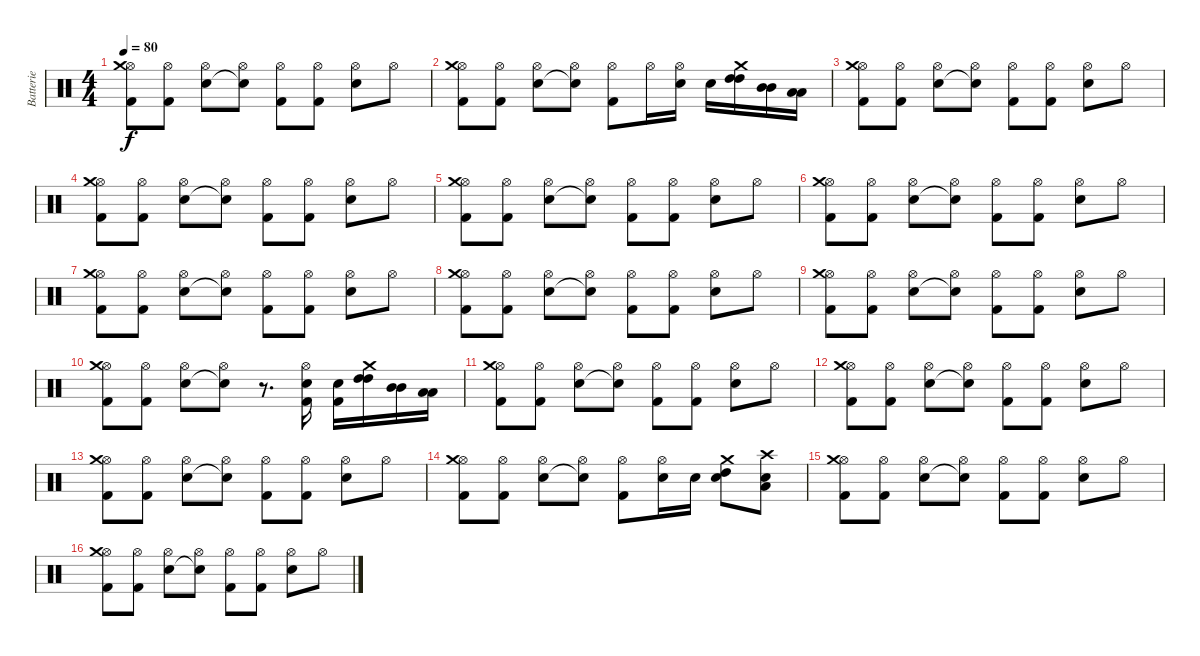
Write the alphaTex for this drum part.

\track ("Batterie" "Batterie") {instrument percussion}
\staff {score}
\articulation defaults
\ts (4 4)
\tempo 80
\clef neutral
\ks c
("Hi-Hat (open)" "Crash medium (hit)" "Kick (hit) 2").8{dy f} ("Hi-Hat (open)" "Kick (hit) 2").8 ("Hi-Hat (open)" "Snare (hit) 2").8 ("Hi-Hat (open)" "Snare (hit)"{t}).8 ("Hi-Hat (open)" "Kick (hit) 2").8 ("Hi-Hat (open)" "Kick (hit) 2").8 ("Hi-Hat (open)" "Snare (hit) 2").8 "Hi-Hat (open)".8 |
("Hi-Hat (open)" "Crash medium (hit)" "Kick (hit) 2").8 ("Hi-Hat (open)" "Kick (hit) 2").8 ("Hi-Hat (open)" "Snare (hit) 2").8 ("Hi-Hat (open)" "Snare (hit)"{t}).8 ("Hi-Hat (open)" "Kick (hit) 2").8 "Hi-Hat (open)".16 ("Hi-Hat (open)" "Snare (hit) 2").16 "Snare (hit) 2".16 ("Crash medium (hit)" "High Tom (hit)" "High Tom (hit)").16 ("Mid Tom (hit)" "Mid Tom (hit)").16 ("Low Tom (hit)" "Low Tom (hit)").16 |
("Hi-Hat (open)" "Crash medium (hit)" "Kick (hit) 2").8 ("Hi-Hat (open)" "Kick (hit) 2").8 ("Hi-Hat (open)" "Snare (hit) 2").8 ("Hi-Hat (open)" "Snare (hit)"{t}).8 ("Hi-Hat (open)" "Kick (hit) 2").8 ("Hi-Hat (open)" "Kick (hit) 2").8 ("Hi-Hat (open)" "Snare (hit) 2").8 "Hi-Hat (open)".8 |
("Hi-Hat (open)" "Crash medium (hit)" "Kick (hit) 2").8 ("Hi-Hat (open)" "Kick (hit) 2").8 ("Hi-Hat (open)" "Snare (hit) 2").8 ("Hi-Hat (open)" "Snare (hit)"{t}).8 ("Hi-Hat (open)" "Kick (hit) 2").8 ("Hi-Hat (open)" "Kick (hit) 2").8 ("Hi-Hat (open)" "Snare (hit) 2").8 "Hi-Hat (open)".8 |
("Hi-Hat (open)" "Crash medium (hit)" "Kick (hit) 2").8 ("Hi-Hat (open)" "Kick (hit) 2").8 ("Hi-Hat (open)" "Snare (hit) 2").8 ("Hi-Hat (open)" "Snare (hit)"{t}).8 ("Hi-Hat (open)" "Kick (hit) 2").8 ("Hi-Hat (open)" "Kick (hit) 2").8 ("Hi-Hat (open)" "Snare (hit) 2").8 "Hi-Hat (open)".8 |
("Hi-Hat (open)" "Crash medium (hit)" "Kick (hit) 2").8 ("Hi-Hat (open)" "Kick (hit) 2").8 ("Hi-Hat (open)" "Snare (hit) 2").8 ("Hi-Hat (open)" "Snare (hit)"{t}).8 ("Hi-Hat (open)" "Kick (hit) 2").8 ("Hi-Hat (open)" "Kick (hit) 2").8 ("Hi-Hat (open)" "Snare (hit) 2").8 "Hi-Hat (open)".8 |
("Hi-Hat (open)" "Crash medium (hit)" "Kick (hit) 2").8 ("Hi-Hat (open)" "Kick (hit) 2").8 ("Hi-Hat (open)" "Snare (hit) 2").8 ("Hi-Hat (open)" "Snare (hit)"{t}).8 ("Hi-Hat (open)" "Kick (hit) 2").8 ("Hi-Hat (open)" "Kick (hit) 2").8 ("Hi-Hat (open)" "Snare (hit) 2").8 "Hi-Hat (open)".8 |
("Hi-Hat (open)" "Crash medium (hit)" "Kick (hit) 2").8 ("Hi-Hat (open)" "Kick (hit) 2").8 ("Hi-Hat (open)" "Snare (hit) 2").8 ("Hi-Hat (open)" "Snare (hit)"{t}).8 ("Hi-Hat (open)" "Kick (hit) 2").8 ("Hi-Hat (open)" "Kick (hit) 2").8 ("Hi-Hat (open)" "Snare (hit) 2").8 "Hi-Hat (open)".8 |
("Hi-Hat (open)" "Crash medium (hit)" "Kick (hit) 2").8 ("Hi-Hat (open)" "Kick (hit) 2").8 ("Hi-Hat (open)" "Snare (hit) 2").8 ("Hi-Hat (open)" "Snare (hit)"{t}).8 ("Hi-Hat (open)" "Kick (hit) 2").8 ("Hi-Hat (open)" "Kick (hit) 2").8 ("Hi-Hat (open)" "Snare (hit) 2").8 "Hi-Hat (open)".8 |
("Hi-Hat (open)" "Crash medium (hit)" "Kick (hit) 2").8 ("Hi-Hat (open)" "Kick (hit) 2").8 ("Hi-Hat (open)" "Snare (hit) 2").8 ("Hi-Hat (open)" "Snare (hit)"{t}).8 r.8{d} ("Hi-Hat (open)" "Kick (hit) 2" "Snare (hit) 2").16 ("Kick (hit) 2" "Snare (hit) 2").16 ("Crash medium (hit)" "High Tom (hit)" "High Tom (hit)").16 ("Mid Tom (hit)" "Mid Tom (hit)").16 ("Low Tom (hit)" "Low Tom (hit)").16 |
("Hi-Hat (open)" "Crash medium (hit)" "Kick (hit) 2").8 ("Hi-Hat (open)" "Kick (hit) 2").8 ("Hi-Hat (open)" "Snare (hit) 2").8 ("Hi-Hat (open)" "Snare (hit)"{t}).8 ("Hi-Hat (open)" "Kick (hit) 2").8 ("Hi-Hat (open)" "Kick (hit) 2").8 ("Hi-Hat (open)" "Snare (hit) 2").8 "Hi-Hat (open)".8 |
("Hi-Hat (open)" "Crash medium (hit)" "Kick (hit) 2").8 ("Hi-Hat (open)" "Kick (hit) 2").8 ("Hi-Hat (open)" "Snare (hit) 2").8 ("Hi-Hat (open)" "Snare (hit)"{t}).8 ("Hi-Hat (open)" "Kick (hit) 2").8 ("Hi-Hat (open)" "Kick (hit) 2").8 ("Hi-Hat (open)" "Snare (hit) 2").8 "Hi-Hat (open)".8 |
("Hi-Hat (open)" "Crash medium (hit)" "Kick (hit) 2").8 ("Hi-Hat (open)" "Kick (hit) 2").8 ("Hi-Hat (open)" "Snare (hit) 2").8 ("Hi-Hat (open)" "Snare (hit)"{t}).8 ("Hi-Hat (open)" "Kick (hit) 2").8 ("Hi-Hat (open)" "Kick (hit) 2").8 ("Hi-Hat (open)" "Snare (hit) 2").8 "Hi-Hat (open)".8 |
("Hi-Hat (open)" "Crash medium (hit)" "Kick (hit) 2").8 ("Hi-Hat (open)" "Kick (hit) 2").8 ("Hi-Hat (open)" "Snare (hit) 2").8 ("Hi-Hat (open)" "Snare (hit)"{t}).8 ("Hi-Hat (open)" "Kick (hit) 2").8 ("Hi-Hat (open)" "Snare (hit) 2").16 "Snare (hit) 2".16 ("Crash medium (hit)" "High Tom (hit)" "Snare (hit) 2").8 ("Crash high (hit)" "Low Tom (hit)" "Snare (hit) 2").8 |
("Hi-Hat (open)" "Crash medium (hit)" "Kick (hit) 2").8 ("Hi-Hat (open)" "Kick (hit) 2").8 ("Hi-Hat (open)" "Snare (hit) 2").8 ("Hi-Hat (open)" "Snare (hit)"{t}).8 ("Hi-Hat (open)" "Kick (hit) 2").8 ("Hi-Hat (open)" "Kick (hit) 2").8 ("Hi-Hat (open)" "Snare (hit) 2").8 "Hi-Hat (open)".8 |
("Hi-Hat (open)" "Crash medium (hit)" "Kick (hit) 2").8 ("Hi-Hat (open)" "Kick (hit) 2").8 ("Hi-Hat (open)" "Snare (hit) 2").8 ("Hi-Hat (open)" "Snare (hit)"{t}).8 ("Hi-Hat (open)" "Kick (hit) 2").8 ("Hi-Hat (open)" "Kick (hit) 2").8 ("Hi-Hat (open)" "Snare (hit) 2").8 "Hi-Hat (open)".8
